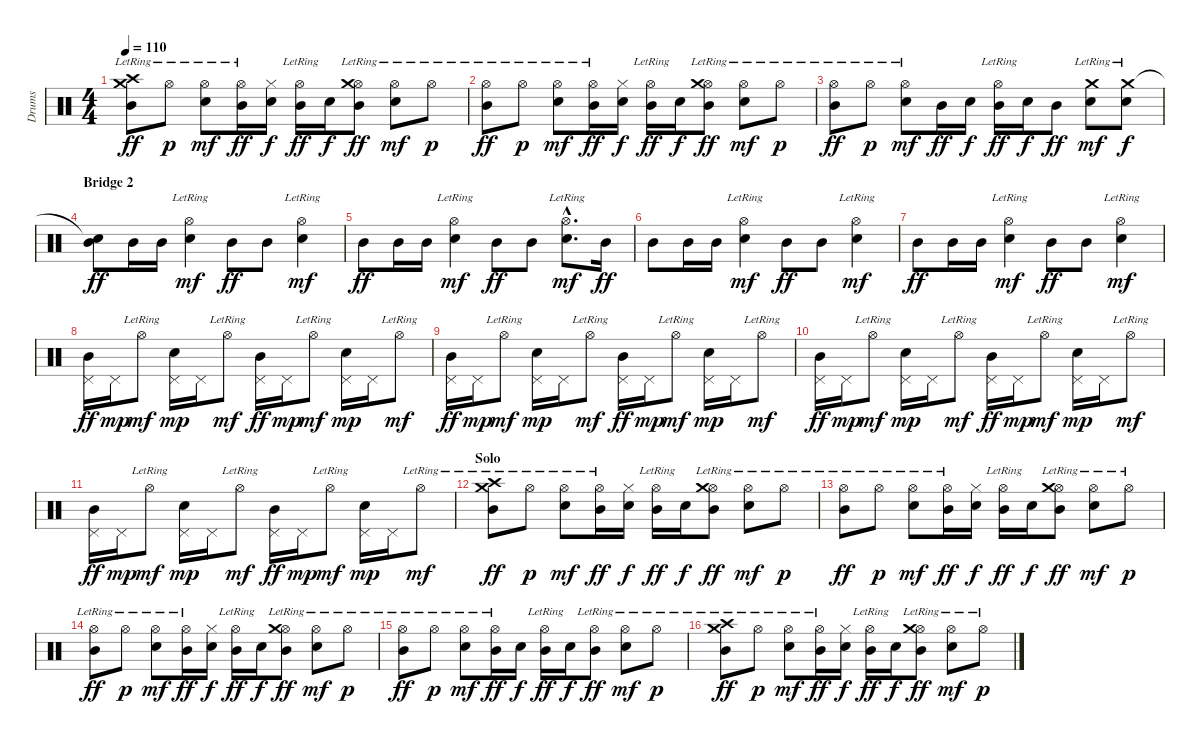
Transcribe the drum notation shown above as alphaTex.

\track ("Drums" "Drums") {instrument percussion}
\staff {score}
\articulation defaults
\ts (4 4)
\tempo 110
\clef neutral
\ks c
("Crash medium (hit)"{lr} "Crash high (hit)"{lr} "Mid Tom (hit)").8{dy ff} "Hi-Hat (open)"{lr}.8{dy p} ("Hi-Hat (open)"{lr} "Electric Snare (hit)").8{dy mf} ("Hi-Hat (open)"{lr} "Mid Tom (hit)").16{dy ff} ("Hi-Hat (closed)" "Electric Snare (hit)").16{dy f} ("Hi-Hat (open)"{lr} "Mid Tom (hit)").16{dy ff} "Electric Snare (hit)".16{dy f} ("Hi-Hat (open)"{lr} "Crash medium (hit)"{lr} "Mid Tom (hit)").8{dy ff} ("Hi-Hat (open)"{lr} "Electric Snare (hit)").8{dy mf} "Hi-Hat (open)"{lr}.8{dy p} |
("Hi-Hat (open)"{lr} "Mid Tom (hit)").8{dy ff} "Hi-Hat (open)"{lr}.8{dy p} ("Hi-Hat (open)"{lr} "Electric Snare (hit)").8{dy mf} ("Hi-Hat (open)"{lr} "Mid Tom (hit)").16{dy ff} ("Hi-Hat (closed)" "Electric Snare (hit)").16{dy f} ("Hi-Hat (open)"{lr} "Mid Tom (hit)").16{dy ff} "Electric Snare (hit)".16{dy f} ("Hi-Hat (open)"{lr} "Crash medium (hit)"{lr} "Mid Tom (hit)").8{dy ff} ("Hi-Hat (open)"{lr} "Electric Snare (hit)").8{dy mf} "Hi-Hat (open)"{lr}.8{dy p} |
("Hi-Hat (open)"{lr} "Mid Tom (hit)").8{dy ff} "Hi-Hat (open)"{lr}.8{dy p} ("Hi-Hat (open)"{lr} "Electric Snare (hit)").8{dy mf} "Mid Tom (hit)".16{dy ff} "Electric Snare (hit)".16{dy f} ("Hi-Hat (open)"{lr} "Mid Tom (hit)").16{dy ff} "Electric Snare (hit)".16{dy f} "Mid Tom (hit)".8{dy ff} ("Crash medium (hit)"{lr} "Electric Snare (hit)").8{dy mf} ("Crash medium (hit)"{lr} "Electric Snare (hit)").8{dy f} |
\section ("" "Bridge 2")
("Snare (hit)"{t} "Mid Tom (hit)").8{dy ff} "Mid Tom (hit)".16 "Mid Tom (hit)".16 ("Hi-Hat (open)"{lr} "Electric Snare (hit)").4{dy mf} "Mid Tom (hit)".8{dy ff} "Mid Tom (hit)".8 ("Hi-Hat (open)"{lr} "Electric Snare (hit)").4{dy mf} |
"Mid Tom (hit)".8{dy ff} "Mid Tom (hit)".16 "Mid Tom (hit)".16 ("Hi-Hat (open)"{lr} "Electric Snare (hit)").4{dy mf} "Mid Tom (hit)".8{dy ff} "Mid Tom (hit)".8 ("Hi-Hat (open)"{hac lr} "Electric Snare (hit)"{hac}).8{d dy mf} "Mid Tom (hit)".16{dy ff} |
"Mid Tom (hit)".8 "Mid Tom (hit)".16 "Mid Tom (hit)".16 ("Hi-Hat (open)"{lr} "Electric Snare (hit)").4{dy mf} "Mid Tom (hit)".8{dy ff} "Mid Tom (hit)".8 ("Hi-Hat (open)"{lr} "Electric Snare (hit)").4{dy mf} |
"Mid Tom (hit)".8{dy ff} "Mid Tom (hit)".16 "Mid Tom (hit)".16 ("Hi-Hat (open)"{lr} "Electric Snare (hit)").4{dy mf} "Mid Tom (hit)".8{dy ff} "Mid Tom (hit)".8 ("Hi-Hat (open)"{lr} "Electric Snare (hit)").4{dy mf} |
("Pedal Hi-Hat (hit)" "Mid Tom (hit)").16{dy ff} "Pedal Hi-Hat (hit)".16{dy mp} "Hi-Hat (open)"{lr}.8{dy mf} ("Pedal Hi-Hat (hit)" "Electric Snare (hit)").16{dy mp} "Pedal Hi-Hat (hit)".16 "Hi-Hat (open)"{lr}.8{dy mf} ("Pedal Hi-Hat (hit)" "Mid Tom (hit)").16{dy ff} "Pedal Hi-Hat (hit)".16{dy mp} "Hi-Hat (open)"{lr}.8{dy mf} ("Pedal Hi-Hat (hit)" "Electric Snare (hit)").16{dy mp} "Pedal Hi-Hat (hit)".16 "Hi-Hat (open)"{lr}.8{dy mf} |
("Pedal Hi-Hat (hit)" "Mid Tom (hit)").16{dy ff} "Pedal Hi-Hat (hit)".16{dy mp} "Hi-Hat (open)"{lr}.8{dy mf} ("Pedal Hi-Hat (hit)" "Electric Snare (hit)").16{dy mp} "Pedal Hi-Hat (hit)".16 "Hi-Hat (open)"{lr}.8{dy mf} ("Pedal Hi-Hat (hit)" "Mid Tom (hit)").16{dy ff} "Pedal Hi-Hat (hit)".16{dy mp} "Hi-Hat (open)"{lr}.8{dy mf} ("Pedal Hi-Hat (hit)" "Electric Snare (hit)").16{dy mp} "Pedal Hi-Hat (hit)".16 "Hi-Hat (open)"{lr}.8{dy mf} |
("Pedal Hi-Hat (hit)" "Mid Tom (hit)").16{dy ff} "Pedal Hi-Hat (hit)".16{dy mp} "Hi-Hat (open)"{lr}.8{dy mf} ("Pedal Hi-Hat (hit)" "Electric Snare (hit)").16{dy mp} "Pedal Hi-Hat (hit)".16 "Hi-Hat (open)"{lr}.8{dy mf} ("Pedal Hi-Hat (hit)" "Mid Tom (hit)").16{dy ff} "Pedal Hi-Hat (hit)".16{dy mp} "Hi-Hat (open)"{lr}.8{dy mf} ("Pedal Hi-Hat (hit)" "Electric Snare (hit)").16{dy mp} "Pedal Hi-Hat (hit)".16 "Hi-Hat (open)"{lr}.8{dy mf} |
("Pedal Hi-Hat (hit)" "Mid Tom (hit)").16{dy ff} "Pedal Hi-Hat (hit)".16{dy mp} "Hi-Hat (open)"{lr}.8{dy mf} ("Pedal Hi-Hat (hit)" "Electric Snare (hit)").16{dy mp} "Pedal Hi-Hat (hit)".16 "Hi-Hat (open)"{lr}.8{dy mf} ("Pedal Hi-Hat (hit)" "Mid Tom (hit)").16{dy ff} "Pedal Hi-Hat (hit)".16{dy mp} "Hi-Hat (open)"{lr}.8{dy mf} ("Pedal Hi-Hat (hit)" "Electric Snare (hit)").16{dy mp} "Pedal Hi-Hat (hit)".16 "Hi-Hat (open)"{lr}.8{dy mf} |
\section ("" "Solo")
("Crash medium (hit)"{lr} "Crash high (hit)"{lr} "Mid Tom (hit)").8{dy ff} "Hi-Hat (open)"{lr}.8{dy p} ("Hi-Hat (open)"{lr} "Electric Snare (hit)").8{dy mf} ("Hi-Hat (open)"{lr} "Mid Tom (hit)").16{dy ff} ("Hi-Hat (closed)" "Electric Snare (hit)").16{dy f} ("Hi-Hat (open)"{lr} "Mid Tom (hit)").16{dy ff} "Electric Snare (hit)".16{dy f} ("Hi-Hat (open)"{lr} "Crash medium (hit)"{lr} "Mid Tom (hit)").8{dy ff} ("Hi-Hat (open)"{lr} "Electric Snare (hit)").8{dy mf} "Hi-Hat (open)"{lr}.8{dy p} |
("Hi-Hat (open)"{lr} "Mid Tom (hit)").8{dy ff} "Hi-Hat (open)"{lr}.8{dy p} ("Hi-Hat (open)"{lr} "Electric Snare (hit)").8{dy mf} ("Hi-Hat (open)"{lr} "Mid Tom (hit)").16{dy ff} ("Hi-Hat (closed)" "Electric Snare (hit)").16{dy f} ("Hi-Hat (open)"{lr} "Mid Tom (hit)").16{dy ff} "Electric Snare (hit)".16{dy f} ("Hi-Hat (open)"{lr} "Crash medium (hit)"{lr} "Mid Tom (hit)").8{dy ff} ("Hi-Hat (open)"{lr} "Electric Snare (hit)").8{dy mf} "Hi-Hat (open)"{lr}.8{dy p} |
("Hi-Hat (open)"{lr} "Mid Tom (hit)").8{dy ff} "Hi-Hat (open)"{lr}.8{dy p} ("Hi-Hat (open)"{lr} "Electric Snare (hit)").8{dy mf} ("Hi-Hat (open)"{lr} "Mid Tom (hit)").16{dy ff} ("Hi-Hat (closed)" "Electric Snare (hit)").16{dy f} ("Hi-Hat (open)"{lr} "Mid Tom (hit)").16{dy ff} "Electric Snare (hit)".16{dy f} ("Hi-Hat (open)"{lr} "Crash medium (hit)"{lr} "Mid Tom (hit)").8{dy ff} ("Hi-Hat (open)"{lr} "Electric Snare (hit)").8{dy mf} "Hi-Hat (open)"{lr}.8{dy p} |
("Hi-Hat (open)"{lr} "Mid Tom (hit)").8{dy ff} "Hi-Hat (open)"{lr}.8{dy p} ("Hi-Hat (open)"{lr} "Electric Snare (hit)").8{dy mf} ("Hi-Hat (open)"{lr} "Mid Tom (hit)").16{dy ff} "Electric Snare (hit)".16{dy f} ("Hi-Hat (open)"{lr} "Mid Tom (hit)").16{dy ff} "Electric Snare (hit)".16{dy f} ("Hi-Hat (open)"{lr} "Mid Tom (hit)").8{dy ff} ("Hi-Hat (open)"{lr} "Electric Snare (hit)").8{dy mf} "Hi-Hat (open)"{lr}.8{dy p} |
("Crash medium (hit)"{lr} "Crash high (hit)"{lr} "Mid Tom (hit)").8{dy ff} "Hi-Hat (open)"{lr}.8{dy p} ("Hi-Hat (open)"{lr} "Electric Snare (hit)").8{dy mf} ("Hi-Hat (open)"{lr} "Mid Tom (hit)").16{dy ff} ("Hi-Hat (closed)" "Electric Snare (hit)").16{dy f} ("Hi-Hat (open)"{lr} "Mid Tom (hit)").16{dy ff} "Electric Snare (hit)".16{dy f} ("Hi-Hat (open)"{lr} "Crash medium (hit)"{lr} "Mid Tom (hit)").8{dy ff} ("Hi-Hat (open)"{lr} "Electric Snare (hit)").8{dy mf} "Hi-Hat (open)"{lr}.8{dy p}
